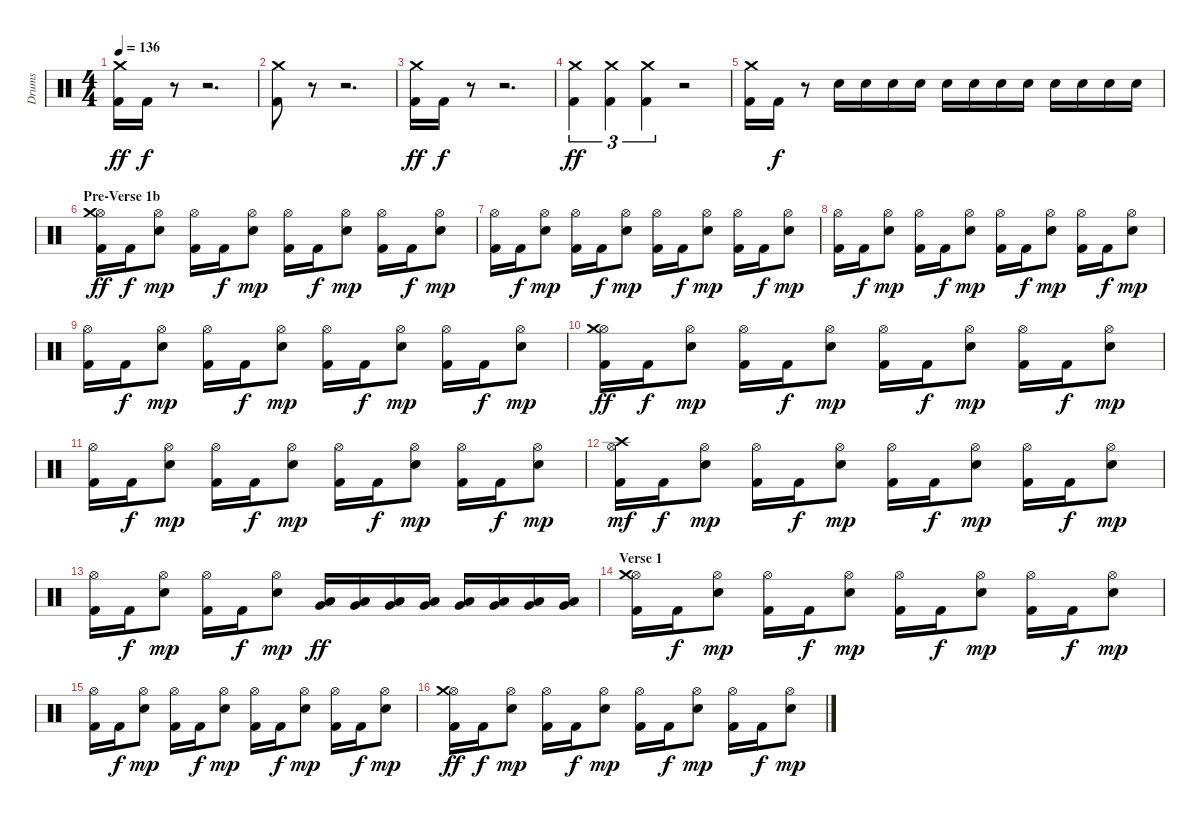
\track ("Drums" "Drums") {instrument percussion}
\staff {score}
\articulation defaults
\ts (4 4)
\tempo 136
\clef neutral
\ks c
("Kick (hit) 2" "Crash medium (hit)").16{dy ff} "Kick (hit) 2".16{dy f} r.8 r.2{d} |
("Kick (hit) 2" "Crash medium (hit)").8 r.8 r.2{d} |
("Kick (hit) 2" "Crash medium (hit)").16{dy ff} "Kick (hit) 2".16{dy f} r.8 r.2{d} |
("Kick (hit) 2" "Crash medium (hit)").4{tu (3 2) dy ff} ("Kick (hit) 2" "Crash medium (hit)").4{tu (3 2)} ("Kick (hit) 2" "Crash medium (hit)").4{tu (3 2)} r.2 |
("Kick (hit) 2" "Crash medium (hit)").16 "Kick (hit) 2".16{dy f} r.8 "Snare (hit) 2".16 "Snare (hit) 2".16 "Snare (hit) 2".16 "Snare (hit) 2".16 "Snare (hit) 2".16 "Snare (hit) 2".16 "Snare (hit) 2".16 "Snare (hit) 2".16 "Snare (hit) 2".16 "Snare (hit) 2".16 "Snare (hit) 2".16 "Snare (hit) 2".16 |
\section ("" "Pre-Verse 1b")
("Kick (hit) 2" "Hi-Hat (open)" "Crash medium (hit)").16{dy ff} "Kick (hit) 2".16{dy f} ("Hi-Hat (open)" "Snare (hit) 2").8{dy mp} ("Kick (hit) 2" "Hi-Hat (open)").16 "Kick (hit) 2".16{dy f} ("Hi-Hat (open)" "Snare (hit) 2").8{dy mp} ("Kick (hit) 2" "Hi-Hat (open)").16 "Kick (hit) 2".16{dy f} ("Hi-Hat (open)" "Snare (hit) 2").8{dy mp} ("Kick (hit) 2" "Hi-Hat (open)").16 "Kick (hit) 2".16{dy f} ("Hi-Hat (open)" "Snare (hit) 2").8{dy mp} |
("Kick (hit) 2" "Hi-Hat (open)").16 "Kick (hit) 2".16{dy f} ("Hi-Hat (open)" "Snare (hit) 2").8{dy mp} ("Kick (hit) 2" "Hi-Hat (open)").16 "Kick (hit) 2".16{dy f} ("Hi-Hat (open)" "Snare (hit) 2").8{dy mp} ("Kick (hit) 2" "Hi-Hat (open)").16 "Kick (hit) 2".16{dy f} ("Hi-Hat (open)" "Snare (hit) 2").8{dy mp} ("Kick (hit) 2" "Hi-Hat (open)").16 "Kick (hit) 2".16{dy f} ("Hi-Hat (open)" "Snare (hit) 2").8{dy mp} |
("Kick (hit) 2" "Hi-Hat (open)").16 "Kick (hit) 2".16{dy f} ("Hi-Hat (open)" "Snare (hit) 2").8{dy mp} ("Kick (hit) 2" "Hi-Hat (open)").16 "Kick (hit) 2".16{dy f} ("Hi-Hat (open)" "Snare (hit) 2").8{dy mp} ("Kick (hit) 2" "Hi-Hat (open)").16 "Kick (hit) 2".16{dy f} ("Hi-Hat (open)" "Snare (hit) 2").8{dy mp} ("Kick (hit) 2" "Hi-Hat (open)").16 "Kick (hit) 2".16{dy f} ("Hi-Hat (open)" "Snare (hit) 2").8{dy mp} |
("Kick (hit) 2" "Hi-Hat (open)").16 "Kick (hit) 2".16{dy f} ("Hi-Hat (open)" "Snare (hit) 2").8{dy mp} ("Kick (hit) 2" "Hi-Hat (open)").16 "Kick (hit) 2".16{dy f} ("Hi-Hat (open)" "Snare (hit) 2").8{dy mp} ("Kick (hit) 2" "Hi-Hat (open)").16 "Kick (hit) 2".16{dy f} ("Hi-Hat (open)" "Snare (hit) 2").8{dy mp} ("Kick (hit) 2" "Hi-Hat (open)").16 "Kick (hit) 2".16{dy f} ("Hi-Hat (open)" "Snare (hit) 2").8{dy mp} |
("Kick (hit) 2" "Hi-Hat (open)" "Crash medium (hit)").16{dy ff} "Kick (hit) 2".16{dy f} ("Hi-Hat (open)" "Snare (hit) 2").8{dy mp} ("Kick (hit) 2" "Hi-Hat (open)").16 "Kick (hit) 2".16{dy f} ("Hi-Hat (open)" "Snare (hit) 2").8{dy mp} ("Kick (hit) 2" "Hi-Hat (open)").16 "Kick (hit) 2".16{dy f} ("Hi-Hat (open)" "Snare (hit) 2").8{dy mp} ("Kick (hit) 2" "Hi-Hat (open)").16 "Kick (hit) 2".16{dy f} ("Hi-Hat (open)" "Snare (hit) 2").8{dy mp} |
("Kick (hit) 2" "Hi-Hat (open)").16 "Kick (hit) 2".16{dy f} ("Hi-Hat (open)" "Snare (hit) 2").8{dy mp} ("Kick (hit) 2" "Hi-Hat (open)").16 "Kick (hit) 2".16{dy f} ("Hi-Hat (open)" "Snare (hit) 2").8{dy mp} ("Kick (hit) 2" "Hi-Hat (open)").16 "Kick (hit) 2".16{dy f} ("Hi-Hat (open)" "Snare (hit) 2").8{dy mp} ("Kick (hit) 2" "Hi-Hat (open)").16 "Kick (hit) 2".16{dy f} ("Hi-Hat (open)" "Snare (hit) 2").8{dy mp} |
("Kick (hit) 2" "Hi-Hat (open)" "Crash high (hit)").16{dy mf} "Kick (hit) 2".16{dy f} ("Hi-Hat (open)" "Snare (hit) 2").8{dy mp} ("Kick (hit) 2" "Hi-Hat (open)").16 "Kick (hit) 2".16{dy f} ("Hi-Hat (open)" "Snare (hit) 2").8{dy mp} ("Kick (hit) 2" "Hi-Hat (open)").16 "Kick (hit) 2".16{dy f} ("Hi-Hat (open)" "Snare (hit) 2").8{dy mp} ("Kick (hit) 2" "Hi-Hat (open)").16 "Kick (hit) 2".16{dy f} ("Hi-Hat (open)" "Snare (hit) 2").8{dy mp} |
("Kick (hit) 2" "Hi-Hat (open)").16 "Kick (hit) 2".16{dy f} ("Hi-Hat (open)" "Snare (hit) 2").8{dy mp} ("Kick (hit) 2" "Hi-Hat (open)").16 "Kick (hit) 2".16{dy f} ("Hi-Hat (open)" "Snare (hit) 2").8{dy mp} ("Very Low Tom (hit)" "Low Tom (hit)").16{dy ff} ("Very Low Tom (hit)" "Low Tom (hit)").16 ("Very Low Tom (hit)" "Low Tom (hit)").16 ("Very Low Tom (hit)" "Low Tom (hit)").16 ("Low Floor Tom (hit)" "Very Low Tom (hit)").16 ("Low Floor Tom (hit)" "Very Low Tom (hit)").16 ("Low Floor Tom (hit)" "Very Low Tom (hit)").16 ("Low Floor Tom (hit)" "Very Low Tom (hit)").16 |
\section ("" "Verse 1")
("Kick (hit) 2" "Hi-Hat (open)" "Crash medium (hit)").16 "Kick (hit) 2".16{dy f} ("Hi-Hat (open)" "Snare (hit) 2").8{dy mp} ("Kick (hit) 2" "Hi-Hat (open)").16 "Kick (hit) 2".16{dy f} ("Hi-Hat (open)" "Snare (hit) 2").8{dy mp} ("Kick (hit) 2" "Hi-Hat (open)").16 "Kick (hit) 2".16{dy f} ("Hi-Hat (open)" "Snare (hit) 2").8{dy mp} ("Kick (hit) 2" "Hi-Hat (open)").16 "Kick (hit) 2".16{dy f} ("Hi-Hat (open)" "Snare (hit) 2").8{dy mp} |
("Kick (hit) 2" "Hi-Hat (open)").16 "Kick (hit) 2".16{dy f} ("Hi-Hat (open)" "Snare (hit) 2").8{dy mp} ("Kick (hit) 2" "Hi-Hat (open)").16 "Kick (hit) 2".16{dy f} ("Hi-Hat (open)" "Snare (hit) 2").8{dy mp} ("Kick (hit) 2" "Hi-Hat (open)").16 "Kick (hit) 2".16{dy f} ("Hi-Hat (open)" "Snare (hit) 2").8{dy mp} ("Kick (hit) 2" "Hi-Hat (open)").16 "Kick (hit) 2".16{dy f} ("Hi-Hat (open)" "Snare (hit) 2").8{dy mp} |
("Kick (hit) 2" "Hi-Hat (open)" "Crash medium (hit)").16{dy ff} "Kick (hit) 2".16{dy f} ("Hi-Hat (open)" "Snare (hit) 2").8{dy mp} ("Kick (hit) 2" "Hi-Hat (open)").16 "Kick (hit) 2".16{dy f} ("Hi-Hat (open)" "Snare (hit) 2").8{dy mp} ("Kick (hit) 2" "Hi-Hat (open)").16 "Kick (hit) 2".16{dy f} ("Hi-Hat (open)" "Snare (hit) 2").8{dy mp} ("Kick (hit) 2" "Hi-Hat (open)").16 "Kick (hit) 2".16{dy f} ("Hi-Hat (open)" "Snare (hit) 2").8{dy mp}
